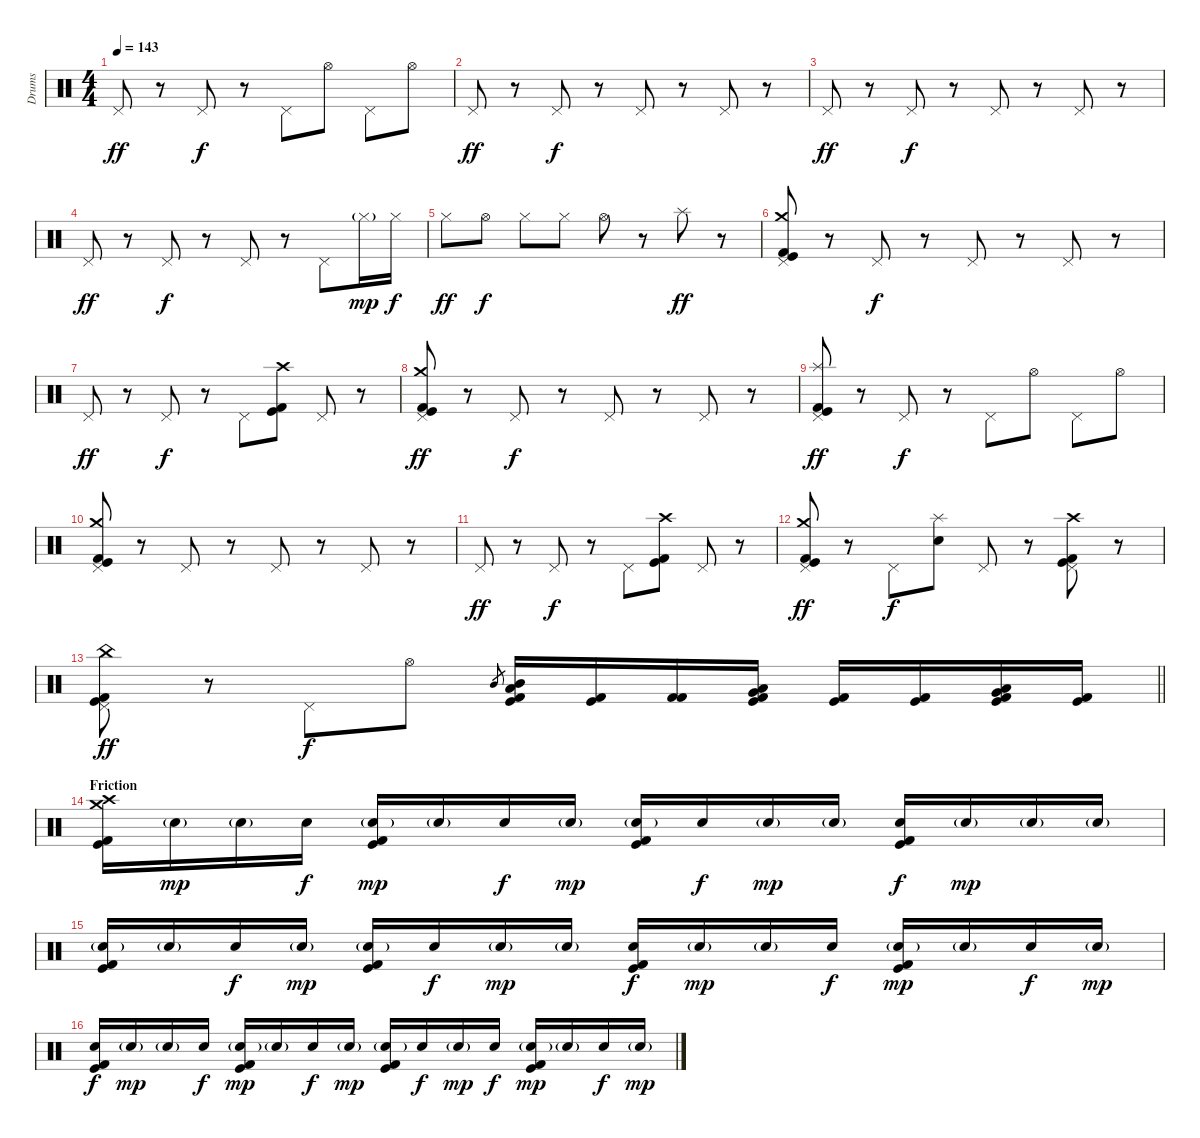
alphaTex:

\track ("Drums" "Drums") {instrument percussion}
\staff {score}
\articulation defaults
\ts (4 4)
\tempo 143
\clef neutral
\ks c "Pedal Hi-Hat (hit)".8{dy ff}
r.8 "Pedal Hi-Hat (hit)".8{dy f} r.8 "Pedal Hi-Hat (hit)".8 "Hi-Hat (open)".8 "Pedal Hi-Hat (hit)".8 "Hi-Hat (open)".8 |
"Pedal Hi-Hat (hit)".8{dy ff} r.8 "Pedal Hi-Hat (hit)".8{dy f} r.8 "Pedal Hi-Hat (hit)".8 r.8 "Pedal Hi-Hat (hit)".8 r.8 |
"Pedal Hi-Hat (hit)".8{dy ff} r.8 "Pedal Hi-Hat (hit)".8{dy f} r.8 "Pedal Hi-Hat (hit)".8 r.8 "Pedal Hi-Hat (hit)".8 r.8 |
"Pedal Hi-Hat (hit)".8{dy ff} r.8 "Pedal Hi-Hat (hit)".8{dy f} r.8 "Pedal Hi-Hat (hit)".8 r.8 "Pedal Hi-Hat (hit)".8 "Hi-Hat (closed)"{g}.16{dy mp} "Hi-Hat (closed)".16{dy f} |
"Hi-Hat (closed)".8{dy ff} "Hi-Hat (open)".8{dy f} "Hi-Hat (closed)".8 "Hi-Hat (closed)".8 "Hi-Hat (open)".8 r.8 "Splash (hit)".8{dy ff} r.8 |
("Crash medium (hit)" "Pedal Hi-Hat (hit)" "Kick (hit)" "Kick (hit) 2").8 r.8 "Pedal Hi-Hat (hit)".8{dy f} r.8 "Pedal Hi-Hat (hit)".8 r.8 "Pedal Hi-Hat (hit)".8 r.8 |
"Pedal Hi-Hat (hit)".8{dy ff} r.8 "Pedal Hi-Hat (hit)".8{dy f} r.8 "Pedal Hi-Hat (hit)".8 ("Crash high (hit)" "Kick (hit)" "Kick (hit) 2").8 "Pedal Hi-Hat (hit)".8 r.8 |
("Crash medium (hit)" "Pedal Hi-Hat (hit)" "Kick (hit)" "Kick (hit) 2").8{dy ff} r.8 "Pedal Hi-Hat (hit)".8{dy f} r.8 "Pedal Hi-Hat (hit)".8 r.8 "Pedal Hi-Hat (hit)".8 r.8 |
("Splash (hit)" "Pedal Hi-Hat (hit)" "Kick (hit)" "Kick (hit) 2").8{dy ff} r.8 "Pedal Hi-Hat (hit)".8{dy f} r.8 "Pedal Hi-Hat (hit)".8 "Hi-Hat (open)".8 "Pedal Hi-Hat (hit)".8 "Hi-Hat (open)".8 |
("Crash medium (hit)" "Pedal Hi-Hat (hit)" "Kick (hit)" "Kick (hit) 2").8 r.8 "Pedal Hi-Hat (hit)".8 r.8 "Pedal Hi-Hat (hit)".8 r.8 "Pedal Hi-Hat (hit)".8 r.8 |
"Pedal Hi-Hat (hit)".8{dy ff} r.8 "Pedal Hi-Hat (hit)".8{dy f} r.8 "Pedal Hi-Hat (hit)".8 ("Crash high (hit)" "Kick (hit)" "Kick (hit) 2").8 "Pedal Hi-Hat (hit)".8 r.8 |
("Crash medium (hit)" "Pedal Hi-Hat (hit)" "Kick (hit)" "Kick (hit) 2").8{dy ff} r.8 "Pedal Hi-Hat (hit)".8{dy f} ("Splash (hit)" "Electric Snare (hit)").8 "Pedal Hi-Hat (hit)".8 r.8 ("Crash high (hit)" "Pedal Hi-Hat (hit)" "Kick (hit)" "Kick (hit) 2").8 r.8 |
\barLineRight lightlight
("China (hit)" "Pedal Hi-Hat (hit)" "Kick (hit)" "Kick (hit) 2").8{dy ff} r.8 "Pedal Hi-Hat (hit)".8{dy f} "Hi-Hat (open)".8 "Mid Tom (hit)".8{gr} ("Mid Tom (hit)" "Low Tom (hit)" "Kick (hit)" "Kick (hit) 2").16 ("Kick (hit)" "Kick (hit) 2").16 ("Kick (hit) 2" "Kick (hit) 2").16 ("Low Tom (hit)" "Very Low Tom (hit)" "Kick (hit)" "Kick (hit) 2").16 ("Kick (hit)" "Kick (hit) 2").16 ("Kick (hit)" "Kick (hit) 2").16 ("Low Floor Tom (hit)" "Very Low Tom (hit)" "Kick (hit)" "Kick (hit) 2").16 ("Kick (hit)" "Kick (hit) 2").16 |
\section ("" "Friction")
("Crash medium (hit)" "Crash high (hit)" "Kick (hit)" "Kick (hit) 2").16 "Electric Snare (hit)"{g}.16{dy mp} "Electric Snare (hit)"{g}.16 "Electric Snare (hit)".16{dy f} ("Electric Snare (hit)"{g} "Kick (hit)" "Kick (hit) 2").16{dy mp} "Electric Snare (hit)"{g}.16 "Electric Snare (hit)".16{dy f} "Electric Snare (hit)"{g}.16{dy mp} ("Electric Snare (hit)"{g} "Kick (hit)" "Kick (hit) 2").16 "Electric Snare (hit)".16{dy f} "Electric Snare (hit)"{g}.16{dy mp} "Electric Snare (hit)"{g}.16 ("Electric Snare (hit)" "Kick (hit)" "Kick (hit) 2").16{dy f} "Electric Snare (hit)"{g}.16{dy mp} "Electric Snare (hit)"{g}.16 "Electric Snare (hit)"{g}.16 |
("Electric Snare (hit)"{g} "Kick (hit)" "Kick (hit) 2").16 "Electric Snare (hit)"{g}.16 "Electric Snare (hit)".16{dy f} "Electric Snare (hit)"{g}.16{dy mp} ("Electric Snare (hit)"{g} "Kick (hit)" "Kick (hit) 2").16 "Electric Snare (hit)".16{dy f} "Electric Snare (hit)"{g}.16{dy mp} "Electric Snare (hit)"{g}.16 ("Electric Snare (hit)" "Kick (hit)" "Kick (hit) 2").16{dy f} "Electric Snare (hit)"{g}.16{dy mp} "Electric Snare (hit)"{g}.16 "Electric Snare (hit)".16{dy f} ("Electric Snare (hit)"{g} "Kick (hit)" "Kick (hit) 2").16{dy mp} "Electric Snare (hit)"{g}.16 "Electric Snare (hit)".16{dy f} "Electric Snare (hit)"{g}.16{dy mp} |
("Electric Snare (hit)" "Kick (hit)" "Kick (hit) 2").16{dy f} "Electric Snare (hit)"{g}.16{dy mp} "Electric Snare (hit)"{g}.16 "Electric Snare (hit)".16{dy f} ("Electric Snare (hit)"{g} "Kick (hit)" "Kick (hit) 2").16{dy mp} "Electric Snare (hit)"{g}.16 "Electric Snare (hit)".16{dy f} "Electric Snare (hit)"{g}.16{dy mp} ("Electric Snare (hit)"{g} "Kick (hit)" "Kick (hit) 2").16 "Electric Snare (hit)".16{dy f} "Electric Snare (hit)"{g}.16{dy mp} "Electric Snare (hit)".16{dy f} ("Electric Snare (hit)"{g} "Kick (hit)" "Kick (hit) 2").16{dy mp} "Electric Snare (hit)"{g}.16 "Electric Snare (hit)".16{dy f} "Electric Snare (hit)"{g}.16{dy mp}
